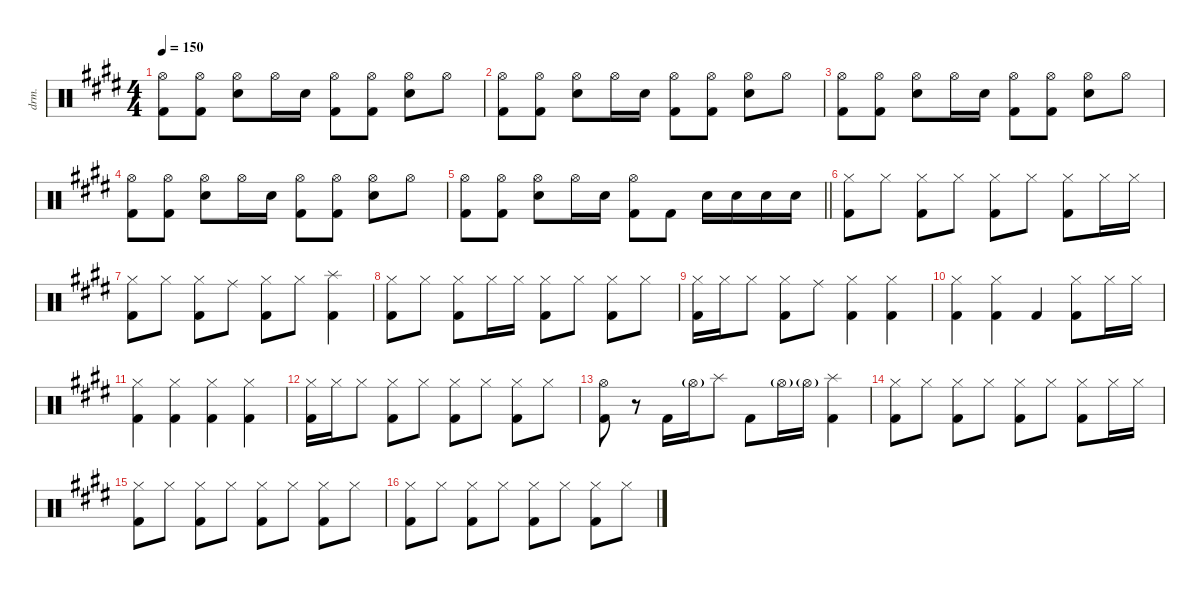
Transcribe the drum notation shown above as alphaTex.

\defaultSystemsLayout 4
\hideDynamics
\bracketExtendMode nobrackets
\track (" (Drums)" "drm.") {instrument percussion}
\staff {score}
\articulation defaults
\ts (4 4)
\tempo 150
\clef neutral
\ks c#minor
("Hi-Hat (open)"{acc forcenatural} "Kick (hit) 2"{acc forcenatural}).8{dy f} ("Hi-Hat (open)"{acc forcenatural} "Kick (hit) 2"{acc forcenatural}).8 ("Hi-Hat (open)"{acc forcenatural} "Snare (hit) 2"{acc forcenatural}).8 "Hi-Hat (open)"{acc forcenatural}.16 "Snare (hit) 2"{acc forcenatural}.16{dy mf} ("Hi-Hat (open)"{acc forcenatural} "Kick (hit) 2"{acc forcenatural}).8{dy f} ("Hi-Hat (open)"{acc forcenatural} "Kick (hit) 2"{acc forcenatural}).8 ("Hi-Hat (open)"{acc forcenatural} "Snare (hit) 2"{acc forcenatural}).8 "Hi-Hat (open)"{acc forcenatural}.8 |
("Hi-Hat (open)"{acc forcenatural} "Kick (hit) 2"{acc forcenatural}).8 ("Hi-Hat (open)"{acc forcenatural} "Kick (hit) 2"{acc forcenatural}).8 ("Hi-Hat (open)"{acc forcenatural} "Snare (hit) 2"{acc forcenatural}).8 "Hi-Hat (open)"{acc forcenatural}.16 "Snare (hit) 2"{acc forcenatural}.16{dy mf} ("Hi-Hat (open)"{acc forcenatural} "Kick (hit) 2"{acc forcenatural}).8{dy f} ("Hi-Hat (open)"{acc forcenatural} "Kick (hit) 2"{acc forcenatural}).8 ("Hi-Hat (open)"{acc forcenatural} "Snare (hit) 2"{acc forcenatural}).8 "Hi-Hat (open)"{acc forcenatural}.8 |
("Hi-Hat (open)"{acc forcenatural} "Kick (hit) 2"{acc forcenatural}).8 ("Hi-Hat (open)"{acc forcenatural} "Kick (hit) 2"{acc forcenatural}).8 ("Hi-Hat (open)"{acc forcenatural} "Snare (hit) 2"{acc forcenatural}).8 "Hi-Hat (open)"{acc forcenatural}.16 "Snare (hit) 2"{acc forcenatural}.16{dy mf} ("Hi-Hat (open)"{acc forcenatural} "Kick (hit) 2"{acc forcenatural}).8{dy f} ("Hi-Hat (open)"{acc forcenatural} "Kick (hit) 2"{acc forcenatural}).8 ("Hi-Hat (open)"{acc forcenatural} "Snare (hit) 2"{acc forcenatural}).8 "Hi-Hat (open)"{acc forcenatural}.8 |
("Hi-Hat (open)"{acc forcenatural} "Kick (hit) 2"{acc forcenatural}).8 ("Hi-Hat (open)"{acc forcenatural} "Kick (hit) 2"{acc forcenatural}).8 ("Hi-Hat (open)"{acc forcenatural} "Snare (hit) 2"{acc forcenatural}).8 "Hi-Hat (open)"{acc forcenatural}.16 "Snare (hit) 2"{acc forcenatural}.16{dy mf} ("Hi-Hat (open)"{acc forcenatural} "Kick (hit) 2"{acc forcenatural}).8{dy f} ("Hi-Hat (open)"{acc forcenatural} "Kick (hit) 2"{acc forcenatural}).8 ("Hi-Hat (open)"{acc forcenatural} "Snare (hit) 2"{acc forcenatural}).8 "Hi-Hat (open)"{acc forcenatural}.8 |
\barLineRight lightlight
("Hi-Hat (open)"{acc forcenatural} "Kick (hit) 2"{acc forcenatural}).8 ("Hi-Hat (open)"{acc forcenatural} "Kick (hit) 2"{acc forcenatural}).8 ("Hi-Hat (open)"{acc forcenatural} "Snare (hit) 2"{acc forcenatural}).8 "Hi-Hat (open)"{acc forcenatural}.16 "Snare (hit) 2"{acc forcenatural}.16{dy mf} ("Hi-Hat (open)"{acc forcenatural} "Kick (hit) 2"{acc forcenatural}).8{dy f} "Kick (hit) 2"{acc forcenatural}.8 "Snare (hit) 2"{acc forcenatural}.16 "Snare (hit) 2"{acc forcenatural}.16 "Snare (hit) 2"{acc forcenatural}.16 "Snare (hit) 2"{acc forcenatural}.16 |
("Hi-Hat (closed)"{acc forcenatural} "Kick (hit) 2"{acc forcenatural}).8 "Hi-Hat (closed)"{acc forcenatural}.8 ("Hi-Hat (closed)"{acc forcenatural} "Kick (hit) 2"{acc forcenatural}).8 "Hi-Hat (closed)"{acc forcenatural}.8 ("Hi-Hat (closed)"{acc forcenatural} "Kick (hit) 2"{acc forcenatural}).8 "Hi-Hat (closed)"{acc forcenatural}.8 ("Hi-Hat (closed)"{acc forcenatural} "Kick (hit) 2"{acc forcenatural}).8 "Hi-Hat (closed)"{acc forcenatural}.16 "Hi-Hat (closed)"{acc forcenatural}.16 |
("Hi-Hat (closed)"{acc forcenatural} "Kick (hit) 2"{acc forcenatural}).8 "Hi-Hat (closed)"{acc forcenatural}.8 ("Hi-Hat (closed)"{acc forcenatural} "Kick (hit) 2"{acc forcenatural}).8 "Ride (middle)"{acc forcenatural}.8 ("Hi-Hat (closed)"{acc forcenatural} "Kick (hit) 2"{acc forcenatural}).8 "Hi-Hat (closed)"{acc forcenatural}.8 ("Splash (hit)"{acc forcenatural} "Kick (hit) 2"{acc forcenatural}).4 |
("Hi-Hat (closed)"{acc forcenatural} "Kick (hit) 2"{acc forcenatural}).8 "Hi-Hat (closed)"{acc forcenatural}.8 ("Hi-Hat (closed)"{acc forcenatural} "Kick (hit) 2"{acc forcenatural}).8 "Hi-Hat (closed)"{acc forcenatural}.16 "Hi-Hat (closed)"{acc forcenatural}.16 ("Hi-Hat (closed)"{acc forcenatural} "Kick (hit) 2"{acc forcenatural}).8 "Hi-Hat (closed)"{acc forcenatural}.8 ("Hi-Hat (closed)"{acc forcenatural} "Kick (hit) 2"{acc forcenatural}).8 "Hi-Hat (closed)"{acc forcenatural}.8 |
("Hi-Hat (closed)"{acc forcenatural} "Kick (hit) 2"{acc forcenatural}).16 "Hi-Hat (closed)"{acc forcenatural}.16 "Hi-Hat (closed)"{acc forcenatural}.8 ("Hi-Hat (closed)"{acc forcenatural} "Kick (hit) 2"{acc forcenatural}).8 "Ride (middle)"{acc forcenatural}.8 ("Hi-Hat (closed)"{acc forcenatural} "Kick (hit) 2"{acc forcenatural}).4 ("Hi-Hat (closed)"{acc forcenatural} "Kick (hit) 2"{acc forcenatural}).4 |
("Hi-Hat (closed)"{acc forcenatural} "Kick (hit) 2"{acc forcenatural}).4 ("Hi-Hat (closed)"{acc forcenatural} "Kick (hit) 2"{acc forcenatural}).4 "Kick (hit) 2"{acc forcenatural}.4 ("Hi-Hat (closed)"{acc forcenatural} "Kick (hit) 2"{acc forcenatural}).8 "Hi-Hat (closed)"{acc forcenatural}.16 "Hi-Hat (closed)"{acc forcenatural}.16 |
("Hi-Hat (closed)"{acc forcenatural} "Kick (hit) 2"{acc forcenatural}).4 ("Hi-Hat (closed)"{acc forcenatural} "Kick (hit) 2"{acc forcenatural}).4 ("Hi-Hat (closed)"{acc forcenatural} "Kick (hit) 2"{acc forcenatural}).4 ("Hi-Hat (closed)"{acc forcenatural} "Kick (hit) 2"{acc forcenatural}).4 |
("Hi-Hat (closed)"{acc forcenatural} "Kick (hit) 2"{acc forcenatural}).16 "Hi-Hat (closed)"{acc forcenatural}.16 "Hi-Hat (closed)"{acc forcenatural}.8 ("Hi-Hat (closed)"{acc forcenatural} "Kick (hit) 2"{acc forcenatural}).8 "Hi-Hat (closed)"{acc forcenatural}.8 ("Hi-Hat (closed)"{acc forcenatural} "Kick (hit) 2"{acc forcenatural}).8 "Hi-Hat (closed)"{acc forcenatural}.8 ("Hi-Hat (closed)"{acc forcenatural} "Kick (hit) 2"{acc forcenatural}).8 "Hi-Hat (closed)"{acc forcenatural}.8 |
("Hi-Hat (open)"{acc forcenatural} "Kick (hit) 2"{acc forcenatural}).8 r.8 "Kick (hit) 2"{acc forcenatural}.16 "Hi-Hat (open)"{g acc forcenatural}.16{dy mf} "Splash (hit)"{acc forcenatural}.8{dy f} "Kick (hit) 2"{acc forcenatural}.8 "Hi-Hat (open)"{g acc forcenatural}.16{dy mf} "Hi-Hat (open)"{g acc forcenatural}.16 ("Splash (hit)"{acc forcenatural} "Kick (hit) 2"{acc forcenatural}).4{dy f} |
("Hi-Hat (closed)"{acc forcenatural} "Kick (hit) 2"{acc forcenatural}).8 "Hi-Hat (closed)"{acc forcenatural}.8 ("Hi-Hat (closed)"{acc forcenatural} "Kick (hit) 2"{acc forcenatural}).8 "Hi-Hat (closed)"{acc forcenatural}.8 ("Hi-Hat (closed)"{acc forcenatural} "Kick (hit) 2"{acc forcenatural}).8 "Hi-Hat (closed)"{acc forcenatural}.8 ("Hi-Hat (closed)"{acc forcenatural} "Kick (hit) 2"{acc forcenatural}).8 "Hi-Hat (closed)"{acc forcenatural}.16 "Hi-Hat (closed)"{acc forcenatural}.16 |
("Hi-Hat (closed)"{acc forcenatural} "Kick (hit) 2"{acc forcenatural}).8 "Hi-Hat (closed)"{acc forcenatural}.8 ("Hi-Hat (closed)"{acc forcenatural} "Kick (hit) 2"{acc forcenatural}).8 "Hi-Hat (closed)"{acc forcenatural}.8 ("Hi-Hat (closed)"{acc forcenatural} "Kick (hit) 2"{acc forcenatural}).8 "Hi-Hat (closed)"{acc forcenatural}.8 ("Hi-Hat (closed)"{acc forcenatural} "Kick (hit) 2"{acc forcenatural}).8 "Hi-Hat (closed)"{acc forcenatural}.8 |
("Hi-Hat (closed)"{acc forcenatural} "Kick (hit) 2"{acc forcenatural}).8 "Hi-Hat (closed)"{acc forcenatural}.8 ("Hi-Hat (closed)"{acc forcenatural} "Kick (hit) 2"{acc forcenatural}).8 "Hi-Hat (closed)"{acc forcenatural}.8 ("Hi-Hat (closed)"{acc forcenatural} "Kick (hit) 2"{acc forcenatural}).8 "Hi-Hat (closed)"{acc forcenatural}.8 ("Hi-Hat (closed)"{acc forcenatural} "Kick (hit) 2"{acc forcenatural}).8 "Hi-Hat (closed)"{acc forcenatural}.8
